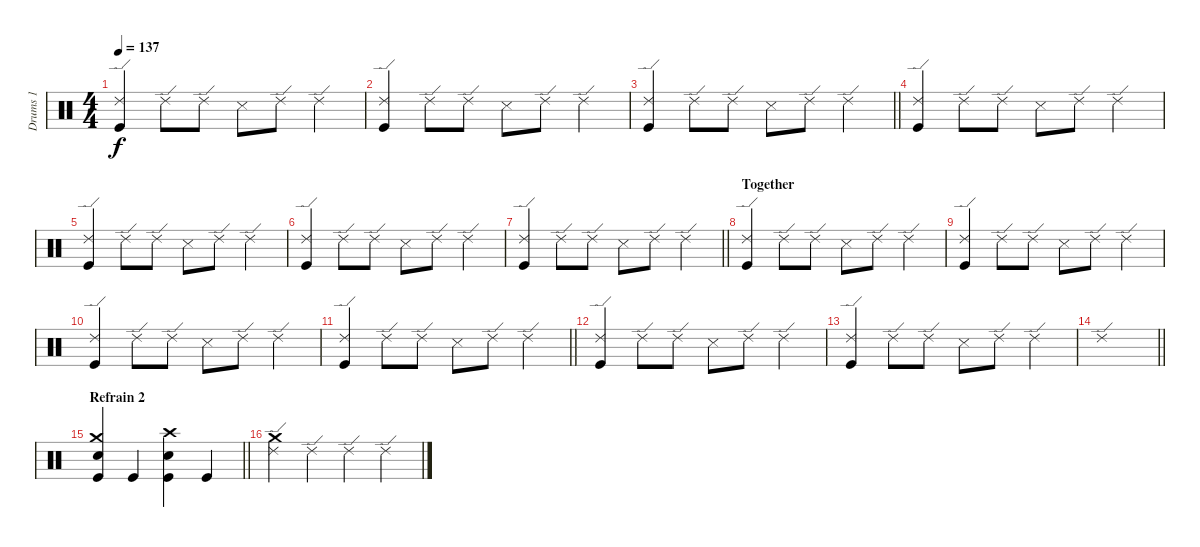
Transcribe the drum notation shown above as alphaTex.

\track ("Drums 1" "Drums 1") {instrument percussion}
\staff {score}
\articulation defaults
\ts (4 4)
\tempo 137
\clef neutral
\ks c
("Ride (edge) 2" "Kick (hit)").4{dy f} "Ride (edge) 2".8 "Ride (edge) 2".8 "Snare (side stick) 3".8 "Ride (edge) 2".8 "Ride (edge) 2".4 |
("Ride (edge) 2" "Kick (hit)").4 "Ride (edge) 2".8 "Ride (edge) 2".8 "Snare (side stick) 3".8 "Ride (edge) 2".8 "Ride (edge) 2".4 |
\barLineRight lightlight
("Ride (edge) 2" "Kick (hit)").4 "Ride (edge) 2".8 "Ride (edge) 2".8 "Snare (side stick) 3".8 "Ride (edge) 2".8 "Ride (edge) 2".4 |
("Ride (edge) 2" "Kick (hit)").4 "Ride (edge) 2".8 "Ride (edge) 2".8 "Snare (side stick) 3".8 "Ride (edge) 2".8 "Ride (edge) 2".4 |
("Ride (edge) 2" "Kick (hit)").4 "Ride (edge) 2".8 "Ride (edge) 2".8 "Snare (side stick) 3".8 "Ride (edge) 2".8 "Ride (edge) 2".4 |
("Ride (edge) 2" "Kick (hit)").4 "Ride (edge) 2".8 "Ride (edge) 2".8 "Snare (side stick) 3".8 "Ride (edge) 2".8 "Ride (edge) 2".4 |
\barLineRight lightlight
("Ride (edge) 2" "Kick (hit)").4 "Ride (edge) 2".8 "Ride (edge) 2".8 "Snare (side stick) 3".8 "Ride (edge) 2".8 "Ride (edge) 2".4 |
\section ("" "Together")
("Ride (edge) 2" "Kick (hit)").4 "Ride (edge) 2".8 "Ride (edge) 2".8 "Snare (side stick) 3".8 "Ride (edge) 2".8 "Ride (edge) 2".4 |
("Ride (edge) 2" "Kick (hit)").4 "Ride (edge) 2".8 "Ride (edge) 2".8 "Snare (side stick) 3".8 "Ride (edge) 2".8 "Ride (edge) 2".4 |
("Ride (edge) 2" "Kick (hit)").4 "Ride (edge) 2".8 "Ride (edge) 2".8 "Snare (side stick) 3".8 "Ride (edge) 2".8 "Ride (edge) 2".4 |
\barLineRight lightlight
("Ride (edge) 2" "Kick (hit)").4 "Ride (edge) 2".8 "Ride (edge) 2".8 "Snare (side stick) 3".8 "Ride (edge) 2".8 "Ride (edge) 2".4 |
("Ride (edge) 2" "Kick (hit)").4 "Ride (edge) 2".8 "Ride (edge) 2".8 "Snare (side stick) 3".8 "Ride (edge) 2".8 "Ride (edge) 2".4 |
("Ride (edge) 2" "Kick (hit)").4 "Ride (edge) 2".8 "Ride (edge) 2".8 "Snare (side stick) 3".8 "Ride (edge) 2".8 "Ride (edge) 2".4 |
\barLineRight lightlight "Ride (edge) 2".1
|
\section ("" "Refrain 2")
\barLineRight lightlight
("Crash medium (hit)" "Snare (hit) 2" "Kick (hit)").4 "Kick (hit)".4 ("Crash high (hit)" "Snare (hit) 2" "Kick (hit)").4 "Kick (hit)".4 |
("Crash medium (hit)" "Ride (edge) 2").4 "Ride (edge) 2".4 "Ride (edge) 2".4 "Ride (edge) 2".4
